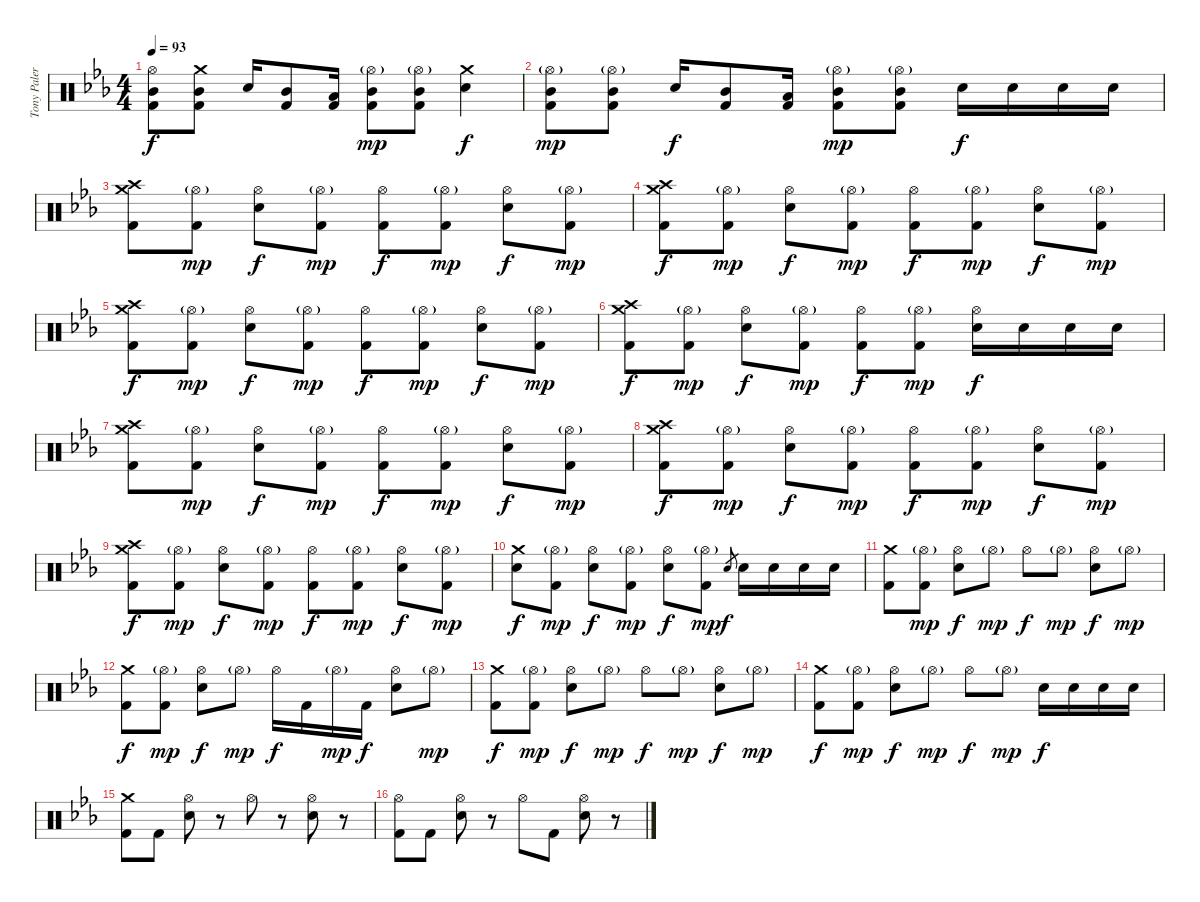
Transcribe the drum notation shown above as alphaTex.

\track ("Tony Palermo" "Tony Paler") {instrument percussion}
\staff {score}
\articulation defaults
\ts (4 4)
\tempo 93
\clef neutral
\ks cminor
("Hi-Hat (open)" "Mid Tom (hit)" "Kick (hit) 2").8{dy f} ("Crash medium (hit)" "Mid Tom (hit)" "Kick (hit) 2").8 "Electric Snare (hit)".16 ("Mid Tom (hit)" "Kick (hit) 2").8 ("Low Tom (hit)" "Kick (hit) 2").16 ("Hi-Hat (open)"{g} "Mid Tom (hit)" "Kick (hit) 2").8{dy mp} ("Hi-Hat (open)"{g} "Mid Tom (hit)" "Kick (hit) 2").8 ("Crash medium (hit)" "Electric Snare (hit)").4{dy f} |
("Hi-Hat (open)"{g} "Mid Tom (hit)" "Kick (hit) 2").8{dy mp} ("Hi-Hat (open)"{g} "Mid Tom (hit)" "Kick (hit) 2").8 "Electric Snare (hit)".16{dy f} ("Mid Tom (hit)" "Kick (hit) 2").8 ("Low Tom (hit)" "Kick (hit) 2").16 ("Hi-Hat (open)"{g} "Mid Tom (hit)" "Kick (hit) 2").8{dy mp} ("Hi-Hat (open)"{g} "Mid Tom (hit)" "Kick (hit) 2").8 "Electric Snare (hit)".16{dy f} "Electric Snare (hit)".16 "Electric Snare (hit)".16 "Electric Snare (hit)".16 |
("Crash high (hit)" "Crash medium (hit)" "Kick (hit) 2").8 ("Hi-Hat (open)"{g} "Kick (hit) 2").8{dy mp} ("Hi-Hat (open)" "Electric Snare (hit)").8{dy f} ("Hi-Hat (open)"{g} "Kick (hit) 2").8{dy mp} ("Hi-Hat (open)" "Kick (hit) 2").8{dy f} ("Hi-Hat (open)"{g} "Kick (hit) 2").8{dy mp} ("Hi-Hat (open)" "Electric Snare (hit)").8{dy f} ("Hi-Hat (open)"{g} "Kick (hit) 2").8{dy mp} |
("Crash high (hit)" "Crash medium (hit)" "Kick (hit) 2").8{dy f} ("Hi-Hat (open)"{g} "Kick (hit) 2").8{dy mp} ("Hi-Hat (open)" "Electric Snare (hit)").8{dy f} ("Hi-Hat (open)"{g} "Kick (hit) 2").8{dy mp} ("Hi-Hat (open)" "Kick (hit) 2").8{dy f} ("Hi-Hat (open)"{g} "Kick (hit) 2").8{dy mp} ("Hi-Hat (open)" "Electric Snare (hit)").8{dy f} ("Hi-Hat (open)"{g} "Kick (hit) 2").8{dy mp} |
("Crash high (hit)" "Crash medium (hit)" "Kick (hit) 2").8{dy f} ("Hi-Hat (open)"{g} "Kick (hit) 2").8{dy mp} ("Hi-Hat (open)" "Electric Snare (hit)").8{dy f} ("Hi-Hat (open)"{g} "Kick (hit) 2").8{dy mp} ("Hi-Hat (open)" "Kick (hit) 2").8{dy f} ("Hi-Hat (open)"{g} "Kick (hit) 2").8{dy mp} ("Hi-Hat (open)" "Electric Snare (hit)").8{dy f} ("Hi-Hat (open)"{g} "Kick (hit) 2").8{dy mp} |
("Crash high (hit)" "Crash medium (hit)" "Kick (hit) 2").8{dy f} ("Hi-Hat (open)"{g} "Kick (hit) 2").8{dy mp} ("Hi-Hat (open)" "Electric Snare (hit)").8{dy f} ("Hi-Hat (open)"{g} "Kick (hit) 2").8{dy mp} ("Hi-Hat (open)" "Kick (hit) 2").8{dy f} ("Hi-Hat (open)"{g} "Kick (hit) 2").8{dy mp} ("Hi-Hat (open)" "Electric Snare (hit)").16{dy f} "Electric Snare (hit)".16 "Electric Snare (hit)".16 "Electric Snare (hit)".16 |
("Crash high (hit)" "Crash medium (hit)" "Kick (hit) 2").8 ("Hi-Hat (open)"{g} "Kick (hit) 2").8{dy mp} ("Hi-Hat (open)" "Electric Snare (hit)").8{dy f} ("Hi-Hat (open)"{g} "Kick (hit) 2").8{dy mp} ("Hi-Hat (open)" "Kick (hit) 2").8{dy f} ("Hi-Hat (open)"{g} "Kick (hit) 2").8{dy mp} ("Hi-Hat (open)" "Electric Snare (hit)").8{dy f} ("Hi-Hat (open)"{g} "Kick (hit) 2").8{dy mp} |
("Crash high (hit)" "Crash medium (hit)" "Kick (hit) 2").8{dy f} ("Hi-Hat (open)"{g} "Kick (hit) 2").8{dy mp} ("Hi-Hat (open)" "Electric Snare (hit)").8{dy f} ("Hi-Hat (open)"{g} "Kick (hit) 2").8{dy mp} ("Hi-Hat (open)" "Kick (hit) 2").8{dy f} ("Hi-Hat (open)"{g} "Kick (hit) 2").8{dy mp} ("Hi-Hat (open)" "Electric Snare (hit)").8{dy f} ("Hi-Hat (open)"{g} "Kick (hit) 2").8{dy mp} |
("Crash high (hit)" "Crash medium (hit)" "Kick (hit) 2").8{dy f} ("Hi-Hat (open)"{g} "Kick (hit) 2").8{dy mp} ("Hi-Hat (open)" "Electric Snare (hit)").8{dy f} ("Hi-Hat (open)"{g} "Kick (hit) 2").8{dy mp} ("Hi-Hat (open)" "Kick (hit) 2").8{dy f} ("Hi-Hat (open)"{g} "Kick (hit) 2").8{dy mp} ("Hi-Hat (open)" "Electric Snare (hit)").8{dy f} ("Hi-Hat (open)"{g} "Kick (hit) 2").8{dy mp} |
("Crash medium (hit)" "Electric Snare (hit)").8{dy f} ("Hi-Hat (open)"{g} "Kick (hit) 2").8{dy mp} ("Hi-Hat (open)" "Electric Snare (hit)").8{dy f} ("Hi-Hat (open)"{g} "Kick (hit) 2").8{dy mp} ("Hi-Hat (open)" "Electric Snare (hit)").8{dy f} ("Hi-Hat (open)"{g} "Kick (hit) 2").8{dy mp} "Electric Snare (hit)".8{gr dy f} "Electric Snare (hit)".16 "Electric Snare (hit)".16 "Electric Snare (hit)".16 "Electric Snare (hit)".16 |
("Crash medium (hit)" "Kick (hit) 2").8 ("Hi-Hat (open)"{g} "Kick (hit) 2").8{dy mp} ("Hi-Hat (open)" "Electric Snare (hit)").8{dy f} "Hi-Hat (open)"{g}.8{dy mp} "Hi-Hat (open)".8{dy f} "Hi-Hat (open)"{g}.8{dy mp} ("Hi-Hat (open)" "Electric Snare (hit)").8{dy f} "Hi-Hat (open)"{g}.8{dy mp} |
("Crash medium (hit)" "Kick (hit) 2").8{dy f} ("Hi-Hat (open)"{g} "Kick (hit) 2").8{dy mp} ("Hi-Hat (open)" "Electric Snare (hit)").8{dy f} "Hi-Hat (open)"{g}.8{dy mp} "Hi-Hat (open)".16{dy f} "Kick (hit) 2".16 "Hi-Hat (open)"{g}.16{dy mp} "Kick (hit) 2".16{dy f} ("Hi-Hat (open)" "Electric Snare (hit)").8 "Hi-Hat (open)"{g}.8{dy mp} |
("Crash medium (hit)" "Kick (hit) 2").8{dy f} ("Hi-Hat (open)"{g} "Kick (hit) 2").8{dy mp} ("Hi-Hat (open)" "Electric Snare (hit)").8{dy f} "Hi-Hat (open)"{g}.8{dy mp} "Hi-Hat (open)".8{dy f} "Hi-Hat (open)"{g}.8{dy mp} ("Hi-Hat (open)" "Electric Snare (hit)").8{dy f} "Hi-Hat (open)"{g}.8{dy mp} |
("Crash medium (hit)" "Kick (hit) 2").8{dy f} ("Hi-Hat (open)"{g} "Kick (hit) 2").8{dy mp} ("Hi-Hat (open)" "Electric Snare (hit)").8{dy f} "Hi-Hat (open)"{g}.8{dy mp} "Hi-Hat (open)".8{dy f} "Hi-Hat (open)"{g}.8{dy mp} "Electric Snare (hit)".16{dy f} "Electric Snare (hit)".16 "Electric Snare (hit)".16 "Electric Snare (hit)".16 |
("Crash medium (hit)" "Kick (hit) 2").8 "Kick (hit) 2".8 ("Hi-Hat (open)" "Electric Snare (hit)").8 r.8 "Hi-Hat (open)".8 r.8 ("Hi-Hat (open)" "Electric Snare (hit)").8 r.8 |
("Hi-Hat (open)" "Kick (hit) 2").8 "Kick (hit) 2".8 ("Hi-Hat (open)" "Electric Snare (hit)").8 r.8 "Hi-Hat (open)".8 "Kick (hit) 2".8 ("Hi-Hat (open)" "Electric Snare (hit)").8 r.8
